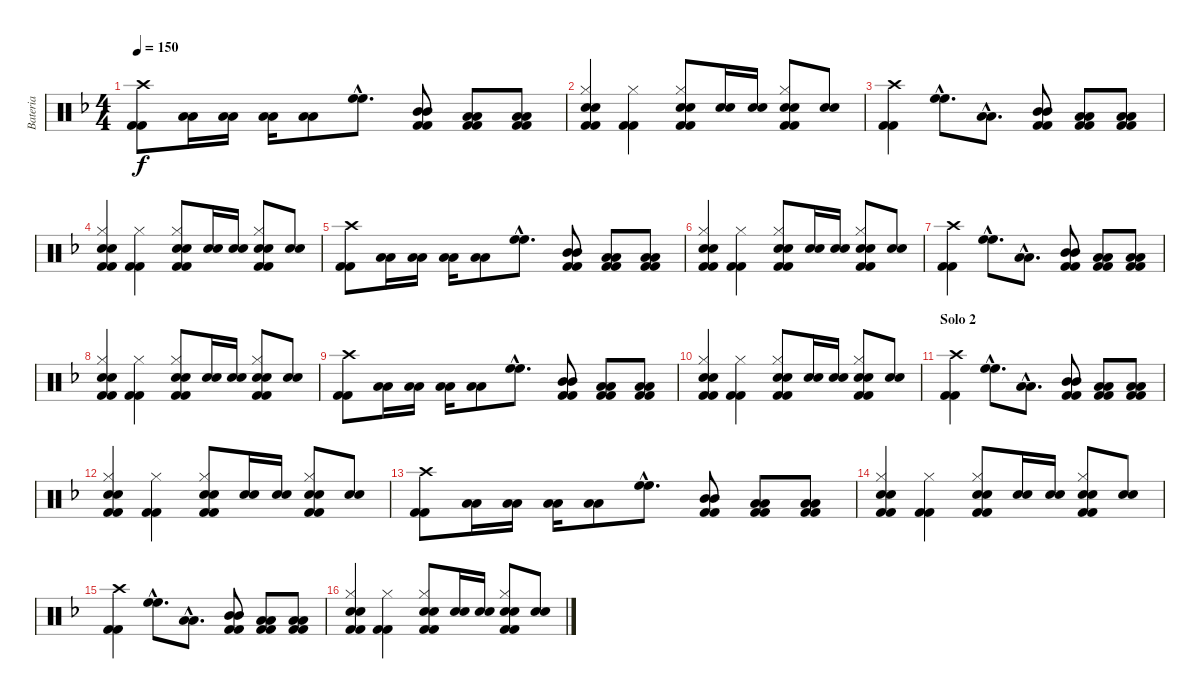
\track ("Bateria" "Bateria") {instrument percussion}
\staff {score}
\articulation defaults
\ts (4 4)
\tempo 150
\clef neutral
\ks dminor
("Crash high (hit)" "Kick (hit) 2" "Kick (hit) 2").8{dy f} ("Low Tom (hit)" "Low Tom (hit)").16 ("Low Tom (hit)" "Low Tom (hit)").16 ("Low Tom (hit)" "Low Tom (hit)").16 ("Low Tom (hit)" "Low Tom (hit)").8 ("High Floor Tom (hit)"{hac} "High Floor Tom (hit)"{hac}).8{d} ("Mid Tom (hit)" "Mid Tom (hit)" "Kick (hit) 2" "Kick (hit) 2").8 ("Low Tom (hit)" "Low Tom (hit)" "Kick (hit) 2" "Kick (hit) 2").8 ("Low Floor Tom (hit)" "Low Floor Tom (hit)" "Kick (hit) 2" "Kick (hit) 2").8 |
("Hi-Hat (closed)" "Electric Snare (hit)" "Snare (hit) 2" "Kick (hit) 2" "Kick (hit) 2").4 ("Hi-Hat (closed)" "Kick (hit) 2" "Kick (hit) 2").4 ("Hi-Hat (closed)" "Electric Snare (hit)" "Snare (hit) 2" "Kick (hit) 2" "Kick (hit) 2").8 ("Electric Snare (hit)" "Snare (hit) 2").16 ("Electric Snare (hit)" "Snare (hit) 2").16 ("Hi-Hat (closed)" "Electric Snare (hit)" "Snare (hit) 2" "Kick (hit) 2" "Kick (hit) 2").8 ("Electric Snare (hit)" "Snare (hit) 2").8 |
("Crash high (hit)" "Kick (hit) 2" "Kick (hit) 2").4 ("High Floor Tom (hit)"{hac} "High Floor Tom (hit)"{hac}).8{d} ("Low Tom (hit)"{hac} "Low Tom (hit)"{hac}).8{d} ("Mid Tom (hit)" "Mid Tom (hit)" "Kick (hit) 2" "Kick (hit) 2").8 ("Low Tom (hit)" "Low Tom (hit)" "Kick (hit) 2" "Kick (hit) 2").8 ("Low Floor Tom (hit)" "Low Floor Tom (hit)" "Kick (hit) 2" "Kick (hit) 2").8 |
("Hi-Hat (closed)" "Electric Snare (hit)" "Snare (hit) 2" "Kick (hit) 2" "Kick (hit) 2").4 ("Hi-Hat (closed)" "Kick (hit) 2" "Kick (hit) 2").4 ("Hi-Hat (closed)" "Electric Snare (hit)" "Snare (hit) 2" "Kick (hit) 2" "Kick (hit) 2").8 ("Electric Snare (hit)" "Snare (hit) 2").16 ("Electric Snare (hit)" "Snare (hit) 2").16 ("Hi-Hat (closed)" "Electric Snare (hit)" "Snare (hit) 2" "Kick (hit) 2" "Kick (hit) 2").8 ("Electric Snare (hit)" "Snare (hit) 2").8 |
("Crash high (hit)" "Kick (hit) 2" "Kick (hit) 2").8 ("Low Tom (hit)" "Low Tom (hit)").16 ("Low Tom (hit)" "Low Tom (hit)").16 ("Low Tom (hit)" "Low Tom (hit)").16 ("Low Tom (hit)" "Low Tom (hit)").8 ("High Floor Tom (hit)"{hac} "High Floor Tom (hit)"{hac}).8{d} ("Mid Tom (hit)" "Mid Tom (hit)" "Kick (hit) 2" "Kick (hit) 2").8 ("Low Tom (hit)" "Low Tom (hit)" "Kick (hit) 2" "Kick (hit) 2").8 ("Low Floor Tom (hit)" "Low Floor Tom (hit)" "Kick (hit) 2" "Kick (hit) 2").8 |
("Hi-Hat (closed)" "Electric Snare (hit)" "Snare (hit) 2" "Kick (hit) 2" "Kick (hit) 2").4 ("Hi-Hat (closed)" "Kick (hit) 2" "Kick (hit) 2").4 ("Hi-Hat (closed)" "Electric Snare (hit)" "Snare (hit) 2" "Kick (hit) 2" "Kick (hit) 2").8 ("Electric Snare (hit)" "Snare (hit) 2").16 ("Electric Snare (hit)" "Snare (hit) 2").16 ("Hi-Hat (closed)" "Electric Snare (hit)" "Snare (hit) 2" "Kick (hit) 2" "Kick (hit) 2").8 ("Electric Snare (hit)" "Snare (hit) 2").8 |
("Crash high (hit)" "Kick (hit) 2" "Kick (hit) 2").4 ("High Floor Tom (hit)"{hac} "High Floor Tom (hit)"{hac}).8{d} ("Low Tom (hit)"{hac} "Low Tom (hit)"{hac}).8{d} ("Mid Tom (hit)" "Mid Tom (hit)" "Kick (hit) 2" "Kick (hit) 2").8 ("Low Tom (hit)" "Low Tom (hit)" "Kick (hit) 2" "Kick (hit) 2").8 ("Low Floor Tom (hit)" "Low Floor Tom (hit)" "Kick (hit) 2" "Kick (hit) 2").8 |
("Hi-Hat (closed)" "Electric Snare (hit)" "Snare (hit) 2" "Kick (hit) 2" "Kick (hit) 2").4 ("Hi-Hat (closed)" "Kick (hit) 2" "Kick (hit) 2").4 ("Hi-Hat (closed)" "Electric Snare (hit)" "Snare (hit) 2" "Kick (hit) 2" "Kick (hit) 2").8 ("Electric Snare (hit)" "Snare (hit) 2").16 ("Electric Snare (hit)" "Snare (hit) 2").16 ("Hi-Hat (closed)" "Electric Snare (hit)" "Snare (hit) 2" "Kick (hit) 2" "Kick (hit) 2").8 ("Electric Snare (hit)" "Snare (hit) 2").8 |
("Crash high (hit)" "Kick (hit) 2" "Kick (hit) 2").8 ("Low Tom (hit)" "Low Tom (hit)").16 ("Low Tom (hit)" "Low Tom (hit)").16 ("Low Tom (hit)" "Low Tom (hit)").16 ("Low Tom (hit)" "Low Tom (hit)").8 ("High Floor Tom (hit)"{hac} "High Floor Tom (hit)"{hac}).8{d} ("Mid Tom (hit)" "Mid Tom (hit)" "Kick (hit) 2" "Kick (hit) 2").8 ("Low Tom (hit)" "Low Tom (hit)" "Kick (hit) 2" "Kick (hit) 2").8 ("Low Floor Tom (hit)" "Low Floor Tom (hit)" "Kick (hit) 2" "Kick (hit) 2").8 |
("Hi-Hat (closed)" "Electric Snare (hit)" "Snare (hit) 2" "Kick (hit) 2" "Kick (hit) 2").4 ("Hi-Hat (closed)" "Kick (hit) 2" "Kick (hit) 2").4 ("Hi-Hat (closed)" "Electric Snare (hit)" "Snare (hit) 2" "Kick (hit) 2" "Kick (hit) 2").8 ("Electric Snare (hit)" "Snare (hit) 2").16 ("Electric Snare (hit)" "Snare (hit) 2").16 ("Hi-Hat (closed)" "Electric Snare (hit)" "Snare (hit) 2" "Kick (hit) 2" "Kick (hit) 2").8 ("Electric Snare (hit)" "Snare (hit) 2").8 |
\section ("" "Solo 2")
("Crash high (hit)" "Kick (hit) 2" "Kick (hit) 2").4 ("High Floor Tom (hit)"{hac} "High Floor Tom (hit)"{hac}).8{d} ("Low Tom (hit)"{hac} "Low Tom (hit)"{hac}).8{d} ("Mid Tom (hit)" "Mid Tom (hit)" "Kick (hit) 2" "Kick (hit) 2").8 ("Low Tom (hit)" "Low Tom (hit)" "Kick (hit) 2" "Kick (hit) 2").8 ("Low Floor Tom (hit)" "Low Floor Tom (hit)" "Kick (hit) 2" "Kick (hit) 2").8 |
("Hi-Hat (closed)" "Electric Snare (hit)" "Snare (hit) 2" "Kick (hit) 2" "Kick (hit) 2").4 ("Hi-Hat (closed)" "Kick (hit) 2" "Kick (hit) 2").4 ("Hi-Hat (closed)" "Electric Snare (hit)" "Snare (hit) 2" "Kick (hit) 2" "Kick (hit) 2").8 ("Electric Snare (hit)" "Snare (hit) 2").16 ("Electric Snare (hit)" "Snare (hit) 2").16 ("Hi-Hat (closed)" "Electric Snare (hit)" "Snare (hit) 2" "Kick (hit) 2" "Kick (hit) 2").8 ("Electric Snare (hit)" "Snare (hit) 2").8 |
("Crash high (hit)" "Kick (hit) 2" "Kick (hit) 2").8 ("Low Tom (hit)" "Low Tom (hit)").16 ("Low Tom (hit)" "Low Tom (hit)").16 ("Low Tom (hit)" "Low Tom (hit)").16 ("Low Tom (hit)" "Low Tom (hit)").8 ("High Floor Tom (hit)"{hac} "High Floor Tom (hit)"{hac}).8{d} ("Mid Tom (hit)" "Mid Tom (hit)" "Kick (hit) 2" "Kick (hit) 2").8 ("Low Tom (hit)" "Low Tom (hit)" "Kick (hit) 2" "Kick (hit) 2").8 ("Low Floor Tom (hit)" "Low Floor Tom (hit)" "Kick (hit) 2" "Kick (hit) 2").8 |
("Hi-Hat (closed)" "Electric Snare (hit)" "Snare (hit) 2" "Kick (hit) 2" "Kick (hit) 2").4 ("Hi-Hat (closed)" "Kick (hit) 2" "Kick (hit) 2").4 ("Hi-Hat (closed)" "Electric Snare (hit)" "Snare (hit) 2" "Kick (hit) 2" "Kick (hit) 2").8 ("Electric Snare (hit)" "Snare (hit) 2").16 ("Electric Snare (hit)" "Snare (hit) 2").16 ("Hi-Hat (closed)" "Electric Snare (hit)" "Snare (hit) 2" "Kick (hit) 2" "Kick (hit) 2").8 ("Electric Snare (hit)" "Snare (hit) 2").8 |
("Crash high (hit)" "Kick (hit) 2" "Kick (hit) 2").4 ("High Floor Tom (hit)"{hac} "High Floor Tom (hit)"{hac}).8{d} ("Low Tom (hit)"{hac} "Low Tom (hit)"{hac}).8{d} ("Mid Tom (hit)" "Mid Tom (hit)" "Kick (hit) 2" "Kick (hit) 2").8 ("Low Tom (hit)" "Low Tom (hit)" "Kick (hit) 2" "Kick (hit) 2").8 ("Low Floor Tom (hit)" "Low Floor Tom (hit)" "Kick (hit) 2" "Kick (hit) 2").8 |
("Hi-Hat (closed)" "Electric Snare (hit)" "Snare (hit) 2" "Kick (hit) 2" "Kick (hit) 2").4 ("Hi-Hat (closed)" "Kick (hit) 2" "Kick (hit) 2").4 ("Hi-Hat (closed)" "Electric Snare (hit)" "Snare (hit) 2" "Kick (hit) 2" "Kick (hit) 2").8 ("Electric Snare (hit)" "Snare (hit) 2").16 ("Electric Snare (hit)" "Snare (hit) 2").16 ("Hi-Hat (closed)" "Electric Snare (hit)" "Snare (hit) 2" "Kick (hit) 2" "Kick (hit) 2").8 ("Electric Snare (hit)" "Snare (hit) 2").8
